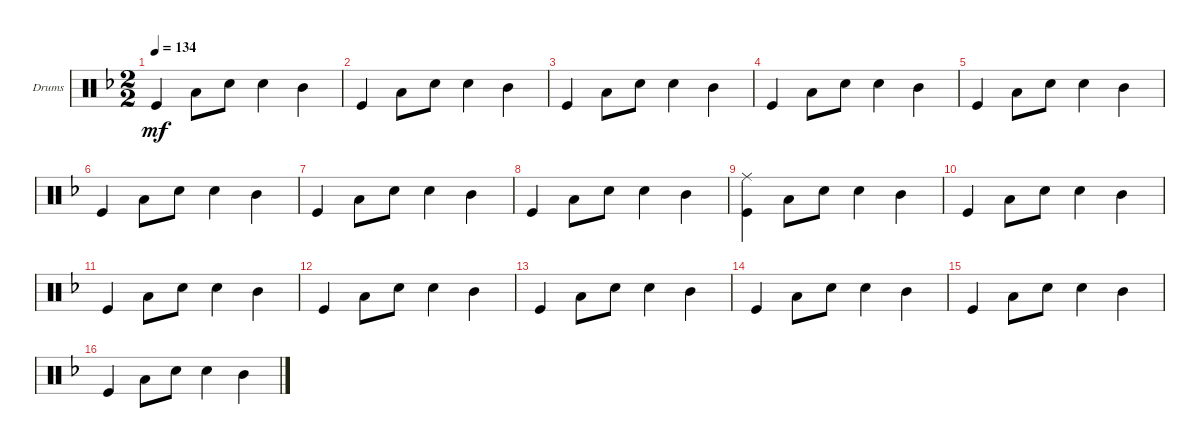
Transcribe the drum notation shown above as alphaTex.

\bracketExtendMode groupsimilarinstruments
\useSystemSignSeparator
\multiTrackTrackNamePolicy allsystems
\firstSystemTrackNameOrientation horizontal
\otherSystemsTrackNameOrientation horizontal
\track ("Drumkit" "Drums") {instrument percussion}
\staff {score}
\articulation defaults
\ts (2 2)
\scale
0.5
\tempo 134
\accidentals auto
\clef neutral
\ottava regular
\simile none
\ks f "Kick (hit)".4{dy mf} "Low Tom (hit)".8 "Snare (hit) 2".8 "Snare (hit) 2".4 "Mid Tom (hit)".4
|
\scale
0.5 "Kick (hit)".4 "Low Tom (hit)".8 "Snare (hit) 2".8 "Snare (hit) 2".4 "Mid Tom (hit)".4 |
\scale
0.5 "Kick (hit)".4 "Low Tom (hit)".8 "Snare (hit) 2".8 "Snare (hit) 2".4 "Mid Tom (hit)".4 |
\scale
0.5 "Kick (hit)".4 "Low Tom (hit)".8 "Snare (hit) 2".8 "Snare (hit) 2".4 "Mid Tom (hit)".4 |
\scale
0.5 "Kick (hit)".4 "Low Tom (hit)".8 "Snare (hit) 2".8 "Snare (hit) 2".4 "Mid Tom (hit)".4 |
\scale
0.5 "Kick (hit)".4 "Low Tom (hit)".8 "Snare (hit) 2".8 "Snare (hit) 2".4 "Mid Tom (hit)".4 |
\scale
0.38961 "Kick (hit)".4 "Low Tom (hit)".8 "Snare (hit) 2".8 "Snare (hit) 2".4 "Mid Tom (hit)".4 |
\scale
0.61039 "Kick (hit)".4 "Low Tom (hit)".8 "Snare (hit) 2".8 "Snare (hit) 2".4 "Mid Tom (hit)".4 |
\scale
0.5 ("Kick (hit)" "Ride (middle)").4 "Low Tom (hit)".8 "Snare (hit) 2".8 "Snare (hit) 2".4 "Mid Tom (hit)".4 |
"Kick (hit)".4 "Low Tom (hit)".8 "Snare (hit) 2".8 "Snare (hit) 2".4 "Mid Tom (hit)".4 |
"Kick (hit)".4 "Low Tom (hit)".8 "Snare (hit) 2".8 "Snare (hit) 2".4 "Mid Tom (hit)".4 |
"Kick (hit)".4 "Low Tom (hit)".8 "Snare (hit) 2".8 "Snare (hit) 2".4 "Mid Tom (hit)".4 |
\scale
0.5 "Kick (hit)".4 "Low Tom (hit)".8 "Snare (hit) 2".8 "Snare (hit) 2".4 "Mid Tom (hit)".4 |
\scale
0.5 "Kick (hit)".4 "Low Tom (hit)".8 "Snare (hit) 2".8 "Snare (hit) 2".4 "Mid Tom (hit)".4 |
\scale
0.5 "Kick (hit)".4 "Low Tom (hit)".8 "Snare (hit) 2".8 "Snare (hit) 2".4 "Mid Tom (hit)".4 |
\scale
0.5 "Kick (hit)".4 "Low Tom (hit)".8 "Snare (hit) 2".8 "Snare (hit) 2".4 "Mid Tom (hit)".4
